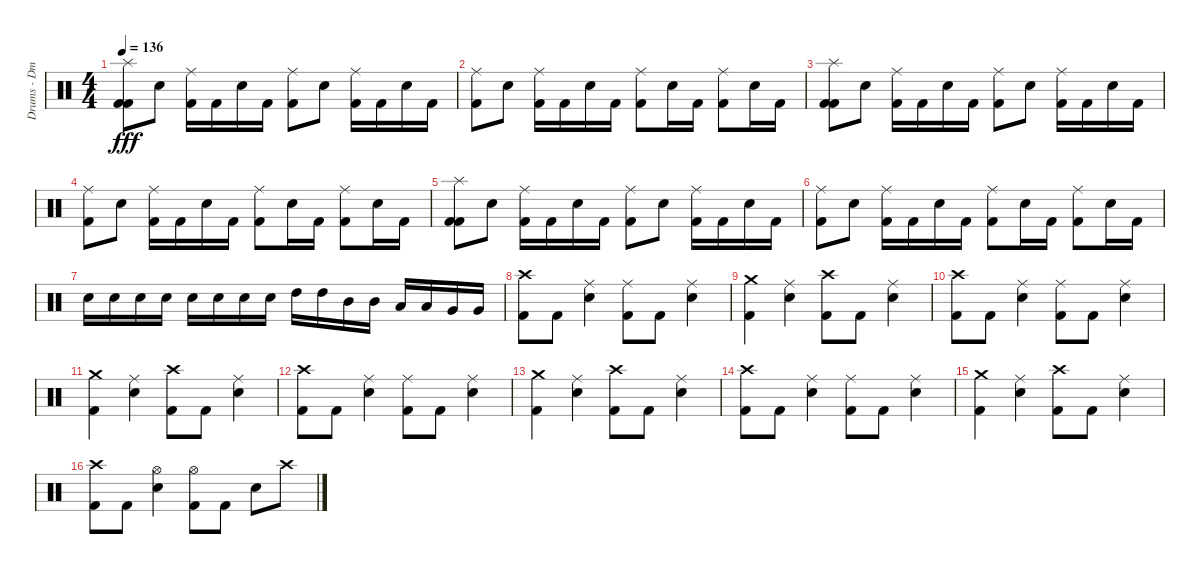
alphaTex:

\track ("Drums - Dmitriy Krivenkov" "Drums - Dm") {instrument percussion}
\staff {score}
\articulation defaults
\ts (4 4)
\tempo 136
\clef neutral
\ks c
("Splash (hit)" "Kick (hit) 2" "Kick (hit) 2").8{dy fff} "Electric Snare (hit)".8 ("Kick (hit) 2" "Ride (middle)").16 "Kick (hit) 2".16 "Electric Snare (hit)".16 "Kick (hit) 2".16 ("Kick (hit) 2" "Ride (middle)").8 "Electric Snare (hit)".8 ("Ride (middle)" "Kick (hit) 2").16 "Kick (hit) 2".16 "Electric Snare (hit)".16 "Kick (hit) 2".16 |
("Ride (middle)" "Kick (hit) 2").8 "Electric Snare (hit)".8 ("Ride (middle)" "Kick (hit) 2").16 "Kick (hit) 2".16 "Electric Snare (hit)".16 "Kick (hit) 2".16 ("Kick (hit) 2" "Ride (middle)").8 "Electric Snare (hit)".16 "Kick (hit) 2".16 ("Ride (middle)" "Kick (hit) 2").8 "Electric Snare (hit)".16 "Kick (hit) 2".16 |
("Kick (hit) 2" "Kick (hit) 2" "Splash (hit)").8 "Electric Snare (hit)".8 ("Ride (middle)" "Kick (hit) 2").16 "Kick (hit) 2".16 "Electric Snare (hit)".16 "Kick (hit) 2".16 ("Ride (middle)" "Kick (hit) 2").8 "Electric Snare (hit)".8 ("Ride (middle)" "Kick (hit) 2").16 "Kick (hit) 2".16 "Electric Snare (hit)".16 "Kick (hit) 2".16 |
("Ride (middle)" "Kick (hit) 2").8 "Electric Snare (hit)".8 ("Ride (middle)" "Kick (hit) 2").16 "Kick (hit) 2".16 "Electric Snare (hit)".16 "Kick (hit) 2".16 ("Ride (middle)" "Kick (hit) 2").8 "Electric Snare (hit)".16 "Kick (hit) 2".16 ("Ride (middle)" "Kick (hit) 2").8 "Electric Snare (hit)".16 "Kick (hit) 2".16 |
("Kick (hit) 2" "Kick (hit) 2" "Splash (hit)").8 "Electric Snare (hit)".8 ("Ride (middle)" "Kick (hit) 2").16 "Kick (hit) 2".16 "Electric Snare (hit)".16 "Kick (hit) 2".16 ("Ride (middle)" "Kick (hit) 2").8 "Electric Snare (hit)".8 ("Ride (middle)" "Kick (hit) 2").16 "Kick (hit) 2".16 "Electric Snare (hit)".16 "Kick (hit) 2".16 |
("Ride (middle)" "Kick (hit) 2").8 "Electric Snare (hit)".8 ("Ride (middle)" "Kick (hit) 2").16 "Kick (hit) 2".16 "Electric Snare (hit)".16 "Kick (hit) 2".16 ("Ride (middle)" "Kick (hit) 2").8 "Electric Snare (hit)".16 "Kick (hit) 2".16 ("Ride (middle)" "Kick (hit) 2").8 "Electric Snare (hit)".16 "Kick (hit) 2".16 |
"Electric Snare (hit)".16 "Electric Snare (hit)".16 "Electric Snare (hit)".16 "Electric Snare (hit)".16 "Electric Snare (hit)".16 "Electric Snare (hit)".16 "Electric Snare (hit)".16 "Electric Snare (hit)".16 "High Tom (hit)".16 "High Tom (hit)".16 "Mid Tom (hit)".16 "Mid Tom (hit)".16 "Low Tom (hit)".16 "Low Tom (hit)".16 "Very Low Tom (hit)".16 "Very Low Tom (hit)".16 |
("Crash high (hit)" "Kick (hit) 2").8 "Kick (hit) 2".8 ("Ride (middle)" "Electric Snare (hit)").4 ("Ride (middle)" "Kick (hit) 2").8 "Kick (hit) 2".8 ("Ride (middle)" "Electric Snare (hit)").4 |
("Crash medium (hit)" "Kick (hit) 2").4 ("Ride (middle)" "Electric Snare (hit)").4 ("Crash high (hit)" "Kick (hit) 2").8 "Kick (hit) 2".8 ("Ride (middle)" "Electric Snare (hit)").4 |
("Crash high (hit)" "Kick (hit) 2").8 "Kick (hit) 2".8 ("Ride (middle)" "Electric Snare (hit)").4 ("Ride (middle)" "Kick (hit) 2").8 "Kick (hit) 2".8 ("Ride (middle)" "Electric Snare (hit)").4 |
("Kick (hit) 2" "Crash medium (hit)").4 ("Electric Snare (hit)" "Ride (middle)").4 ("Kick (hit) 2" "Crash high (hit)").8 "Kick (hit) 2".8 ("Electric Snare (hit)" "Ride (middle)").4 |
("Crash high (hit)" "Kick (hit) 2").8 "Kick (hit) 2".8 ("Ride (middle)" "Electric Snare (hit)").4 ("Ride (middle)" "Kick (hit) 2").8 "Kick (hit) 2".8 ("Ride (middle)" "Electric Snare (hit)").4 |
("Crash medium (hit)" "Kick (hit) 2").4 ("Ride (middle)" "Electric Snare (hit)").4 ("Crash high (hit)" "Kick (hit) 2").8 "Kick (hit) 2".8 ("Ride (middle)" "Electric Snare (hit)").4 |
("Crash high (hit)" "Kick (hit) 2").8 "Kick (hit) 2".8 ("Ride (middle)" "Electric Snare (hit)").4 ("Ride (middle)" "Kick (hit) 2").8 "Kick (hit) 2".8 ("Ride (middle)" "Electric Snare (hit)").4 |
("Kick (hit) 2" "Crash medium (hit)").4 ("Electric Snare (hit)" "Ride (middle)").4 ("Kick (hit) 2" "Crash high (hit)").8 "Kick (hit) 2".8 ("Electric Snare (hit)" "Ride (middle)").4 |
("Crash high (hit)" "Kick (hit) 2").8 "Kick (hit) 2".8 ("Hi-Hat (open)" "Electric Snare (hit)").4 ("Hi-Hat (open)" "Kick (hit) 2").8 "Kick (hit) 2".8 "Electric Snare (hit)".8 "Crash high (hit)".8
